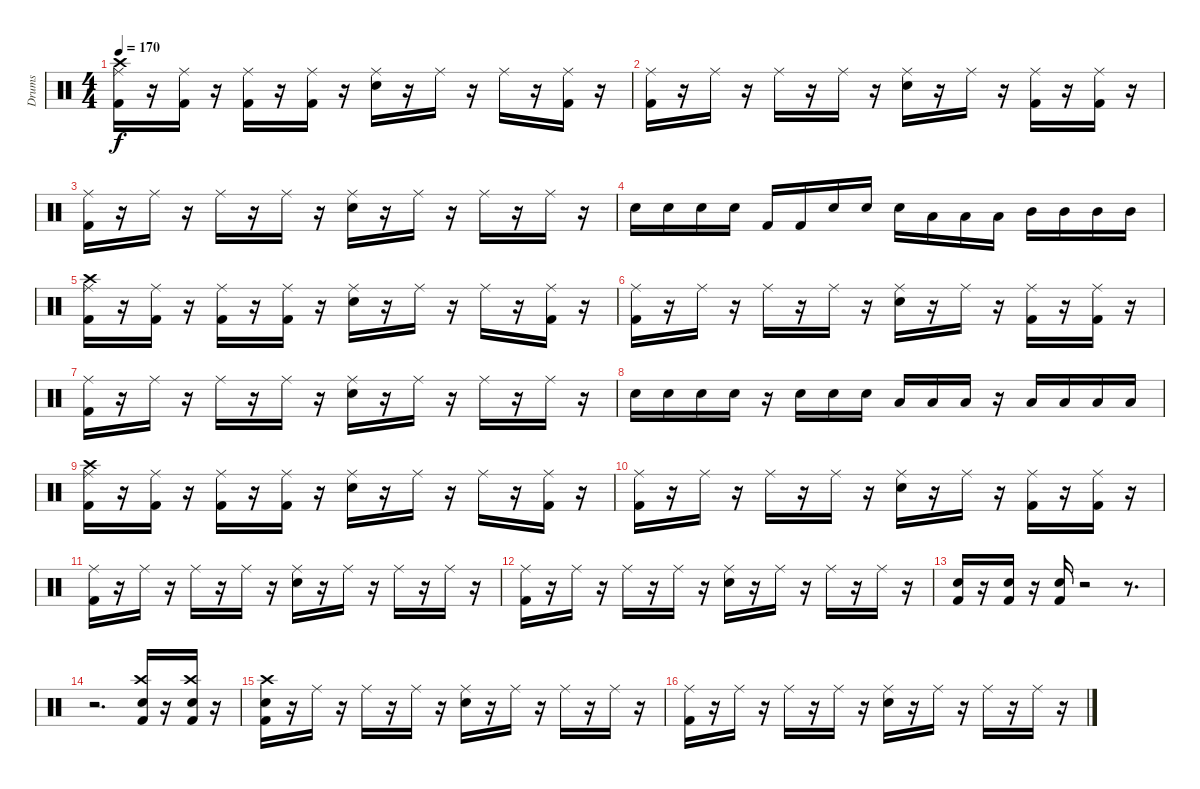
\track ("Drums               " "Drums     ") {instrument percussion}
\staff {score}
\articulation defaults
\ts (4 4)
\tempo 170
\clef neutral
\ks c
("Kick (hit) 2" "Crash high (hit)" "Ride (middle)").16{dy f} r.16 ("Kick (hit) 2" "Ride (middle)").16 r.16 ("Kick (hit) 2" "Ride (middle)").16 r.16 ("Kick (hit) 2" "Ride (middle)").16 r.16 ("Snare (hit) 2" "Ride (middle)").16 r.16 "Ride (middle)".16 r.16 "Ride (middle)".16 r.16 ("Kick (hit) 2" "Ride (middle)").16 r.16 |
("Kick (hit) 2" "Ride (middle)").16 r.16 "Ride (middle)".16 r.16 "Ride (middle)".16 r.16 "Ride (middle)".16 r.16 ("Snare (hit) 2" "Ride (middle)").16 r.16 "Ride (middle)".16 r.16 ("Kick (hit) 2" "Ride (middle)").16 r.16 ("Kick (hit) 2" "Ride (middle)").16 r.16 |
("Kick (hit) 2" "Ride (middle)").16 r.16 "Ride (middle)".16 r.16 "Ride (middle)".16 r.16 "Ride (middle)".16 r.16 ("Snare (hit) 2" "Ride (middle)").16 r.16 "Ride (middle)".16 r.16 "Ride (middle)".16 r.16 "Ride (middle)".16 r.16 |
"Snare (hit) 2".16 "Snare (hit) 2".16 "Snare (hit) 2".16 "Snare (hit) 2".16 "Kick (hit) 2".16 "Kick (hit) 2".16 "Snare (hit) 2".16 "Snare (hit) 2".16 "Snare (hit) 2".16 "Low Tom (hit)".16 "Low Tom (hit)".16 "Low Tom (hit)".16 "Mid Tom (hit)".16 "Mid Tom (hit)".16 "Mid Tom (hit)".16 "Mid Tom (hit)".16 |
("Kick (hit) 2" "Crash high (hit)" "Ride (middle)").16 r.16 ("Kick (hit) 2" "Ride (middle)").16 r.16 ("Kick (hit) 2" "Ride (middle)").16 r.16 ("Kick (hit) 2" "Ride (middle)").16 r.16 ("Snare (hit) 2" "Ride (middle)").16 r.16 "Ride (middle)".16 r.16 "Ride (middle)".16 r.16 ("Kick (hit) 2" "Ride (middle)").16 r.16 |
("Kick (hit) 2" "Ride (middle)").16 r.16 "Ride (middle)".16 r.16 "Ride (middle)".16 r.16 "Ride (middle)".16 r.16 ("Snare (hit) 2" "Ride (middle)").16 r.16 "Ride (middle)".16 r.16 ("Kick (hit) 2" "Ride (middle)").16 r.16 ("Kick (hit) 2" "Ride (middle)").16 r.16 |
("Kick (hit) 2" "Ride (middle)").16 r.16 "Ride (middle)".16 r.16 "Ride (middle)".16 r.16 "Ride (middle)".16 r.16 ("Snare (hit) 2" "Ride (middle)").16 r.16 "Ride (middle)".16 r.16 "Ride (middle)".16 r.16 "Ride (middle)".16 r.16 |
"Snare (hit) 2".16 "Snare (hit) 2".16 "Snare (hit) 2".16 "Snare (hit) 2".16 r.16 "Snare (hit) 2".16 "Snare (hit) 2".16 "Snare (hit) 2".16 "Low Tom (hit)".16 "Low Tom (hit)".16 "Low Tom (hit)".16 r.16 "Low Floor Tom (hit)".16 "Low Floor Tom (hit)".16 "Low Floor Tom (hit)".16 "Low Floor Tom (hit)".16 |
("Kick (hit) 2" "Crash high (hit)" "Ride (middle)").16 r.16 ("Kick (hit) 2" "Ride (middle)").16 r.16 ("Kick (hit) 2" "Ride (middle)").16 r.16 ("Kick (hit) 2" "Ride (middle)").16 r.16 ("Snare (hit) 2" "Ride (middle)").16 r.16 "Ride (middle)".16 r.16 "Ride (middle)".16 r.16 ("Kick (hit) 2" "Ride (middle)").16 r.16 |
("Kick (hit) 2" "Ride (middle)").16 r.16 "Ride (middle)".16 r.16 "Ride (middle)".16 r.16 "Ride (middle)".16 r.16 ("Snare (hit) 2" "Ride (middle)").16 r.16 "Ride (middle)".16 r.16 ("Kick (hit) 2" "Ride (middle)").16 r.16 ("Kick (hit) 2" "Ride (middle)").16 r.16 |
("Kick (hit) 2" "Ride (middle)").16 r.16 "Ride (middle)".16 r.16 "Ride (middle)".16 r.16 "Ride (middle)".16 r.16 ("Snare (hit) 2" "Ride (middle)").16 r.16 "Ride (middle)".16 r.16 "Ride (middle)".16 r.16 "Ride (middle)".16 r.16 |
("Kick (hit) 2" "Ride (middle)").16 r.16 "Ride (middle)".16 r.16 "Ride (middle)".16 r.16 "Ride (middle)".16 r.16 ("Electric Snare (hit)" "Ride (middle)").16 r.16 "Ride (middle)".16 r.16 "Ride (middle)".16 r.16 "Ride (middle)".16 r.16 |
("Kick (hit) 2" "Snare (hit) 2").16 r.16 ("Kick (hit) 2" "Snare (hit) 2").16 r.16 ("Kick (hit) 2" "Snare (hit) 2").16 r.2 r.8{d} |
r.2{d} ("Kick (hit) 2" "Snare (hit) 2" "Crash high (hit)").16 r.16 ("Kick (hit) 2" "Snare (hit) 2" "Crash high (hit)").16 r.16 |
("Kick (hit) 2" "Snare (hit) 2" "Crash high (hit)").16 r.16 "Ride (middle)".16 r.16 "Ride (middle)".16 r.16 "Ride (middle)".16 r.16 ("Electric Snare (hit)" "Ride (middle)").16 r.16 "Ride (middle)".16 r.16 "Ride (middle)".16 r.16 "Ride (middle)".16 r.16 |
("Kick (hit) 2" "Ride (middle)").16 r.16 "Ride (middle)".16 r.16 "Ride (middle)".16 r.16 "Ride (middle)".16 r.16 ("Snare (hit) 2" "Ride (middle)").16 r.16 "Ride (middle)".16 r.16 "Ride (middle)".16 r.16 "Ride (middle)".16 r.16
